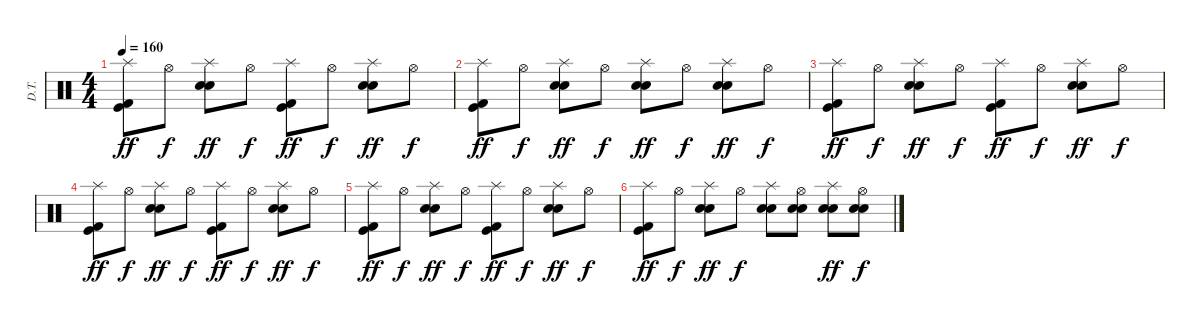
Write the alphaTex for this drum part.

\track ("D.T." "D.T.") {instrument percussion}
\staff {score}
\articulation defaults
\ts (4 4)
\tempo 160
\clef neutral
\ks c
("Splash (hit)" "Kick (hit)" "Kick (hit) 2").8{dy ff} "Hi-Hat (open)".8{dy f} ("Splash (hit)" "Snare (hit) 2" "Electric Snare (hit)").8{dy ff} "Hi-Hat (open)".8{dy f} ("Splash (hit)" "Kick (hit)" "Kick (hit) 2").8{dy ff} "Hi-Hat (open)".8{dy f} ("Splash (hit)" "Snare (hit) 2" "Electric Snare (hit)").8{dy ff} "Hi-Hat (open)".8{dy f} |
("Splash (hit)" "Kick (hit)" "Kick (hit) 2").8{dy ff} "Hi-Hat (open)".8{dy f} ("Splash (hit)" "Snare (hit) 2" "Electric Snare (hit)").8{dy ff} "Hi-Hat (open)".8{dy f} ("Splash (hit)" "Snare (hit) 2" "Electric Snare (hit)").8{dy ff} "Hi-Hat (open)".8{dy f} ("Splash (hit)" "Snare (hit) 2" "Electric Snare (hit)").8{dy ff} "Hi-Hat (open)".8{dy f} |
("Splash (hit)" "Kick (hit)" "Kick (hit) 2").8{dy ff} "Hi-Hat (open)".8{dy f} ("Splash (hit)" "Snare (hit) 2" "Electric Snare (hit)").8{dy ff} "Hi-Hat (open)".8{dy f} ("Splash (hit)" "Kick (hit)" "Kick (hit) 2").8{dy ff} "Hi-Hat (open)".8{dy f} ("Splash (hit)" "Snare (hit) 2" "Electric Snare (hit)").8{dy ff} "Hi-Hat (open)".8{dy f} |
("Splash (hit)" "Kick (hit)" "Kick (hit) 2").8{dy ff} "Hi-Hat (open)".8{dy f} ("Splash (hit)" "Snare (hit) 2" "Electric Snare (hit)").8{dy ff} "Hi-Hat (open)".8{dy f} ("Splash (hit)" "Kick (hit)" "Kick (hit) 2").8{dy ff} "Hi-Hat (open)".8{dy f} ("Splash (hit)" "Snare (hit) 2" "Electric Snare (hit)").8{dy ff} "Hi-Hat (open)".8{dy f} |
("Splash (hit)" "Kick (hit)" "Kick (hit) 2").8{dy ff} "Hi-Hat (open)".8{dy f} ("Splash (hit)" "Snare (hit) 2" "Electric Snare (hit)").8{dy ff} "Hi-Hat (open)".8{dy f} ("Splash (hit)" "Kick (hit)" "Kick (hit) 2").8{dy ff} "Hi-Hat (open)".8{dy f} ("Splash (hit)" "Snare (hit) 2" "Electric Snare (hit)").8{dy ff} "Hi-Hat (open)".8{dy f} |
("Splash (hit)" "Kick (hit)" "Kick (hit) 2").8{dy ff} "Hi-Hat (open)".8{dy f} ("Splash (hit)" "Snare (hit) 2" "Electric Snare (hit)").8{dy ff} "Hi-Hat (open)".8{dy f} ("Splash (hit)" "Snare (hit) 2" "Electric Snare (hit)").8 ("Hi-Hat (open)" "Snare (hit) 2" "Electric Snare (hit)").8 ("Splash (hit)" "Snare (hit) 2" "Electric Snare (hit)").8{dy ff} ("Hi-Hat (open)" "Snare (hit) 2" "Electric Snare (hit)").8{dy f}
